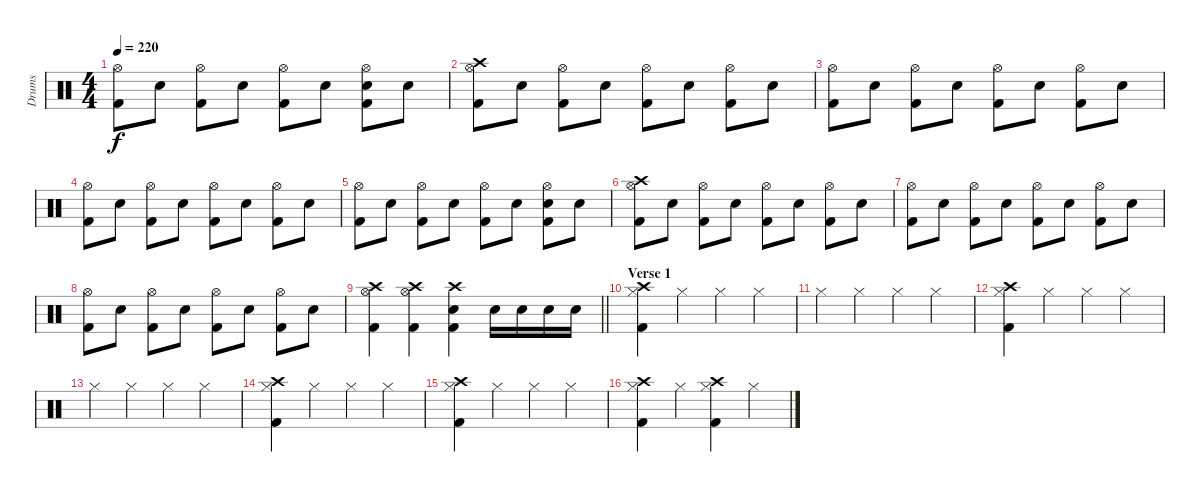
\track ("Drums" "Drums") {instrument percussion}
\staff {score}
\articulation defaults
\ts (4 4)
\tempo 220
\clef neutral
\ks c
("Hi-Hat (open)" "Kick (hit) 2").8{dy f} "Snare (hit) 2".8 ("Hi-Hat (open)" "Kick (hit) 2").8 "Snare (hit) 2".8 ("Hi-Hat (open)" "Kick (hit) 2").8 "Snare (hit) 2".8 ("Hi-Hat (open)" "Snare (hit) 2" "Kick (hit) 2").8 "Snare (hit) 2".8 |
("Crash high (hit)" "Hi-Hat (open)" "Kick (hit) 2").8 "Snare (hit) 2".8 ("Hi-Hat (open)" "Kick (hit) 2").8 "Snare (hit) 2".8 ("Hi-Hat (open)" "Kick (hit) 2").8 "Snare (hit) 2".8 ("Hi-Hat (open)" "Kick (hit) 2").8 "Snare (hit) 2".8 |
("Hi-Hat (open)" "Kick (hit) 2").8 "Snare (hit) 2".8 ("Hi-Hat (open)" "Kick (hit) 2").8 "Snare (hit) 2".8 ("Hi-Hat (open)" "Kick (hit) 2").8 "Snare (hit) 2".8 ("Hi-Hat (open)" "Kick (hit) 2").8 "Snare (hit) 2".8 |
("Hi-Hat (open)" "Kick (hit) 2").8 "Snare (hit) 2".8 ("Hi-Hat (open)" "Kick (hit) 2").8 "Snare (hit) 2".8 ("Hi-Hat (open)" "Kick (hit) 2").8 "Snare (hit) 2".8 ("Hi-Hat (open)" "Kick (hit) 2").8 "Snare (hit) 2".8 |
("Hi-Hat (open)" "Kick (hit) 2").8 "Snare (hit) 2".8 ("Hi-Hat (open)" "Kick (hit) 2").8 "Snare (hit) 2".8 ("Hi-Hat (open)" "Kick (hit) 2").8 "Snare (hit) 2".8 ("Hi-Hat (open)" "Snare (hit) 2" "Kick (hit) 2").8 "Snare (hit) 2".8 |
("Crash high (hit)" "Hi-Hat (open)" "Kick (hit) 2").8 "Snare (hit) 2".8 ("Hi-Hat (open)" "Kick (hit) 2").8 "Snare (hit) 2".8 ("Hi-Hat (open)" "Kick (hit) 2").8 "Snare (hit) 2".8 ("Hi-Hat (open)" "Kick (hit) 2").8 "Snare (hit) 2".8 |
("Hi-Hat (open)" "Kick (hit) 2").8 "Snare (hit) 2".8 ("Hi-Hat (open)" "Kick (hit) 2").8 "Snare (hit) 2".8 ("Hi-Hat (open)" "Kick (hit) 2").8 "Snare (hit) 2".8 ("Hi-Hat (open)" "Kick (hit) 2").8 "Snare (hit) 2".8 |
("Hi-Hat (open)" "Kick (hit) 2").8 "Snare (hit) 2".8 ("Hi-Hat (open)" "Kick (hit) 2").8 "Snare (hit) 2".8 ("Hi-Hat (open)" "Kick (hit) 2").8 "Snare (hit) 2".8 ("Hi-Hat (open)" "Kick (hit) 2").8 "Snare (hit) 2".8 |
\barLineRight lightlight
("Crash high (hit)" "Hi-Hat (open)" "Kick (hit) 2").4 ("Crash high (hit)" "Hi-Hat (open)" "Kick (hit) 2").4 ("Crash high (hit)" "Snare (hit) 2" "Kick (hit) 2").4 "Snare (hit) 2".16 "Snare (hit) 2".16 "Snare (hit) 2".16 "Snare (hit) 2".16 |
\section ("" "Verse 1")
("Crash high (hit)" "Hi-Hat (closed)" "Kick (hit) 2").4 "Hi-Hat (closed)".4 "Hi-Hat (closed)".4 "Hi-Hat (closed)".4 |
"Hi-Hat (closed)".4 "Hi-Hat (closed)".4 "Hi-Hat (closed)".4 "Hi-Hat (closed)".4 |
("Crash high (hit)" "Hi-Hat (closed)" "Kick (hit) 2").4 "Hi-Hat (closed)".4 "Hi-Hat (closed)".4 "Hi-Hat (closed)".4 |
"Hi-Hat (closed)".4 "Hi-Hat (closed)".4 "Hi-Hat (closed)".4 "Hi-Hat (closed)".4 |
("Crash high (hit)" "Hi-Hat (closed)" "Kick (hit) 2").4 "Hi-Hat (closed)".4 "Hi-Hat (closed)".4 "Hi-Hat (closed)".4 |
("Crash high (hit)" "Hi-Hat (closed)" "Kick (hit) 2").4 "Hi-Hat (closed)".4 "Hi-Hat (closed)".4 "Hi-Hat (closed)".4 |
("Crash high (hit)" "Hi-Hat (closed)" "Kick (hit) 2").4 "Hi-Hat (closed)".4 ("Crash high (hit)" "Hi-Hat (closed)" "Kick (hit) 2").4 "Hi-Hat (closed)".4
